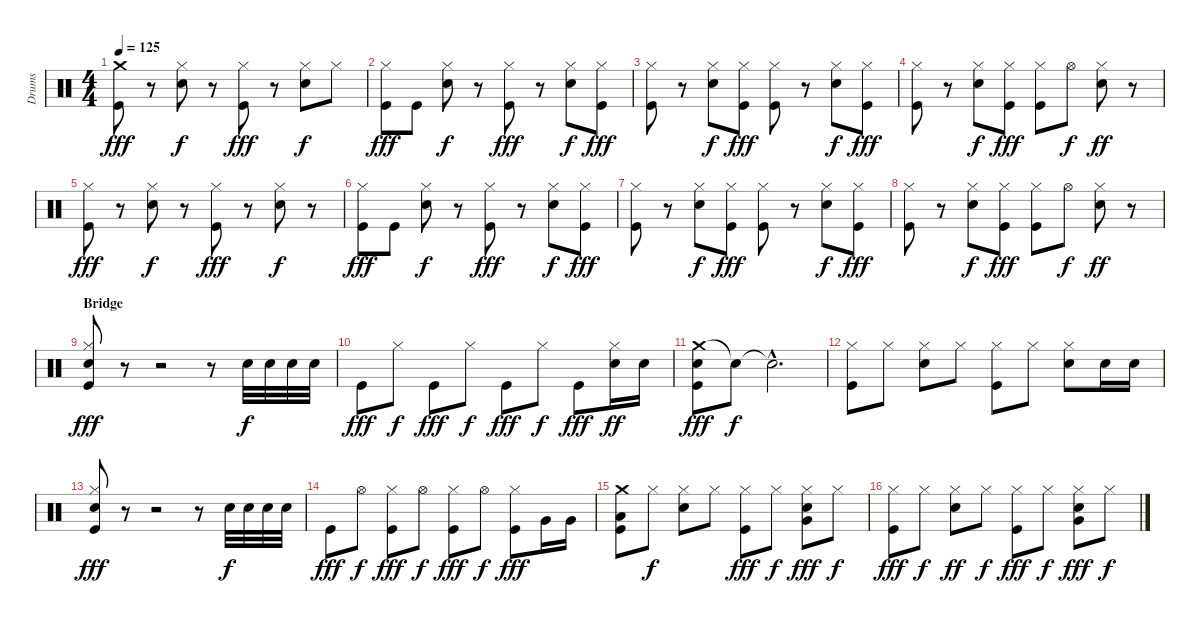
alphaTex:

\track ("Drums" "Drums") {instrument percussion}
\staff {score}
\articulation defaults
\ts (4 4)
\tempo 125
\clef neutral
\ks c
("Crash medium (hit)" "Kick (hit)").8{dy fff} r.8 ("Hi-Hat (closed)" "Snare (hit) 2").8{dy f} r.8 ("Hi-Hat (closed)" "Kick (hit)").8{dy fff} r.8 ("Hi-Hat (closed)" "Snare (hit) 2").8{dy f} "Hi-Hat (closed)".8 |
("Hi-Hat (closed)" "Kick (hit)").8{dy fff} "Kick (hit)".8 ("Hi-Hat (closed)" "Snare (hit) 2").8{dy f} r.8 ("Hi-Hat (closed)" "Kick (hit)").8{dy fff} r.8 ("Hi-Hat (closed)" "Snare (hit) 2").8{dy f} ("Hi-Hat (closed)" "Kick (hit)").8{dy fff} |
("Hi-Hat (closed)" "Kick (hit)").8 r.8 ("Hi-Hat (closed)" "Snare (hit) 2").8{dy f} ("Hi-Hat (closed)" "Kick (hit)").8{dy fff} ("Hi-Hat (closed)" "Kick (hit)").8 r.8 ("Hi-Hat (closed)" "Snare (hit) 2").8{dy f} ("Hi-Hat (closed)" "Kick (hit)").8{dy fff} |
("Hi-Hat (closed)" "Kick (hit)").8 r.8 ("Hi-Hat (closed)" "Snare (hit) 2").8{dy f} ("Hi-Hat (closed)" "Kick (hit)").8{dy fff} ("Hi-Hat (closed)" "Kick (hit)").8 "Hi-Hat (open)".8{dy f} ("Hi-Hat (closed)" "Snare (hit) 2").8{dy ff} r.8 |
("Hi-Hat (closed)" "Kick (hit)").8{dy fff} r.8 ("Hi-Hat (closed)" "Snare (hit) 2").8{dy f} r.8 ("Hi-Hat (closed)" "Kick (hit)").8{dy fff} r.8 ("Hi-Hat (closed)" "Snare (hit) 2").8{dy f} r.8 |
("Hi-Hat (closed)" "Kick (hit)").8{dy fff} "Kick (hit)".8 ("Hi-Hat (closed)" "Snare (hit) 2").8{dy f} r.8 ("Hi-Hat (closed)" "Kick (hit)").8{dy fff} r.8 ("Hi-Hat (closed)" "Snare (hit) 2").8{dy f} ("Hi-Hat (closed)" "Kick (hit)").8{dy fff} |
("Hi-Hat (closed)" "Kick (hit)").8 r.8 ("Hi-Hat (closed)" "Snare (hit) 2").8{dy f} ("Hi-Hat (closed)" "Kick (hit)").8{dy fff} ("Hi-Hat (closed)" "Kick (hit)").8 r.8 ("Hi-Hat (closed)" "Snare (hit) 2").8{dy f} ("Hi-Hat (closed)" "Kick (hit)").8{dy fff} |
("Hi-Hat (closed)" "Kick (hit)").8 r.8 ("Hi-Hat (closed)" "Snare (hit) 2").8{dy f} ("Hi-Hat (closed)" "Kick (hit)").8{dy fff} ("Hi-Hat (closed)" "Kick (hit)").8 "Hi-Hat (open)".8{dy f} ("Hi-Hat (closed)" "Snare (hit) 2").8{dy ff} r.8 |
\section ("" "Bridge")
("Hi-Hat (closed)" "Snare (hit) 2" "Kick (hit)").8{dy fff} r.8 r.2 r.8 "Snare (hit) 2".32{dy f} "Snare (hit) 2".32 "Snare (hit) 2".32 "Snare (hit) 2".32 |
"Kick (hit)".8{dy fff} "Hi-Hat (closed)".8{dy f} "Kick (hit)".8{dy fff} "Hi-Hat (closed)".8{dy f} "Kick (hit)".8{dy fff} "Hi-Hat (closed)".8{dy f} "Kick (hit)".8{dy fff} ("Hi-Hat (closed)" "Snare (hit) 2").16{dy ff} "Snare (hit) 2".16 |
("Crash medium (hit)" "Snare (hit) 2" "Kick (hit)").8{dy fff} "Snare (hit)"{t}.8{dy f} "Snare (hit)"{hac t}.2{d} |
("Hi-Hat (closed)" "Kick (hit)").8 "Hi-Hat (closed)".8 ("Hi-Hat (closed)" "Snare (hit) 2").8 "Hi-Hat (closed)".8 ("Hi-Hat (closed)" "Kick (hit)").8 "Hi-Hat (closed)".8 ("Hi-Hat (closed)" "Snare (hit) 2").8 "Snare (hit) 2".16 "Snare (hit) 2".16 |
("Hi-Hat (closed)" "Snare (hit) 2" "Kick (hit)").8{dy fff} r.8 r.2 r.8 "Snare (hit) 2".32{dy f} "Snare (hit) 2".32 "Snare (hit) 2".32 "Snare (hit) 2".32 |
"Kick (hit)".8{dy fff} "Hi-Hat (open)".8{dy f} ("Hi-Hat (closed)" "Kick (hit)").8{dy fff} "Hi-Hat (open)".8{dy f} ("Hi-Hat (closed)" "Kick (hit)").8{dy fff} "Hi-Hat (open)".8{dy f} ("Hi-Hat (closed)" "Kick (hit)").8{dy fff} "Very Low Tom (hit)".16 "Very Low Tom (hit)".16 |
("Crash medium (hit)" "Low Floor Tom (hit)" "Kick (hit)").8 "Hi-Hat (closed)".8{dy f} ("Hi-Hat (closed)" "Snare (hit) 2").8 "Hi-Hat (closed)".8 ("Hi-Hat (closed)" "Kick (hit)").8{dy fff} "Hi-Hat (closed)".8{dy f} ("Hi-Hat (closed)" "Snare (hit) 2" "Very Low Tom (hit)").8{dy fff} "Hi-Hat (closed)".8{dy f} |
("Hi-Hat (closed)" "Kick (hit)").8{dy fff} "Hi-Hat (closed)".8{dy f} ("Hi-Hat (closed)" "Snare (hit) 2").8{dy ff} "Hi-Hat (closed)".8{dy f} ("Hi-Hat (closed)" "Kick (hit)").8{dy fff} "Hi-Hat (closed)".8{dy f} ("Hi-Hat (closed)" "Snare (hit) 2" "Very Low Tom (hit)").8{dy fff} "Hi-Hat (closed)".8{dy f}
